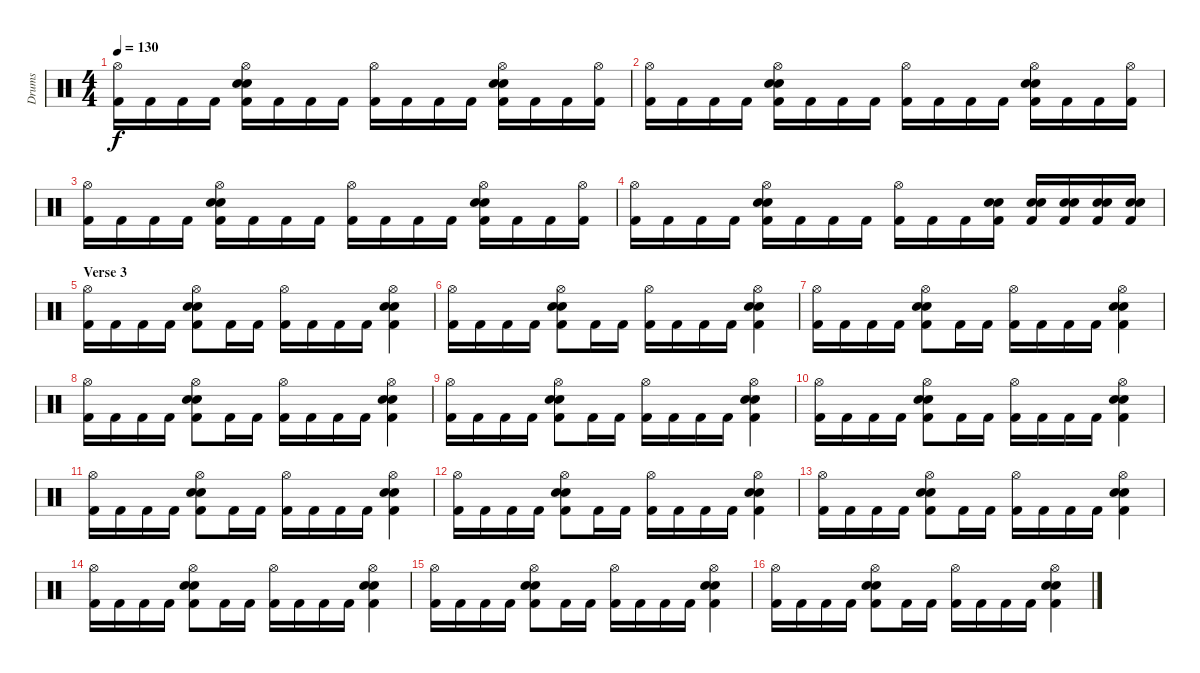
\track ("Drums" "Drums") {instrument percussion}
\staff {score}
\articulation defaults
\ts (4 4)
\tempo 130
\clef neutral
\ks c
("Hi-Hat (open)" "Kick (hit) 2").16{dy f} "Kick (hit) 2".16 "Kick (hit) 2".16 "Kick (hit) 2".16 ("Hi-Hat (open)" "Snare (hit) 2" "Electric Snare (hit)" "Kick (hit) 2").16 "Kick (hit) 2".16 "Kick (hit) 2".16 "Kick (hit) 2".16 ("Hi-Hat (open)" "Kick (hit) 2").16 "Kick (hit) 2".16 "Kick (hit) 2".16 "Kick (hit) 2".16 ("Hi-Hat (open)" "Snare (hit) 2" "Electric Snare (hit)" "Kick (hit) 2").16 "Kick (hit) 2".16 "Kick (hit) 2".16 ("Hi-Hat (open)" "Kick (hit) 2").16 |
("Hi-Hat (open)" "Kick (hit) 2").16 "Kick (hit) 2".16 "Kick (hit) 2".16 "Kick (hit) 2".16 ("Hi-Hat (open)" "Snare (hit) 2" "Electric Snare (hit)" "Kick (hit) 2").16 "Kick (hit) 2".16 "Kick (hit) 2".16 "Kick (hit) 2".16 ("Hi-Hat (open)" "Kick (hit) 2").16 "Kick (hit) 2".16 "Kick (hit) 2".16 "Kick (hit) 2".16 ("Hi-Hat (open)" "Snare (hit) 2" "Electric Snare (hit)" "Kick (hit) 2").16 "Kick (hit) 2".16 "Kick (hit) 2".16 ("Hi-Hat (open)" "Kick (hit) 2").16 |
("Hi-Hat (open)" "Kick (hit) 2").16 "Kick (hit) 2".16 "Kick (hit) 2".16 "Kick (hit) 2".16 ("Hi-Hat (open)" "Snare (hit) 2" "Electric Snare (hit)" "Kick (hit) 2").16 "Kick (hit) 2".16 "Kick (hit) 2".16 "Kick (hit) 2".16 ("Hi-Hat (open)" "Kick (hit) 2").16 "Kick (hit) 2".16 "Kick (hit) 2".16 "Kick (hit) 2".16 ("Hi-Hat (open)" "Snare (hit) 2" "Electric Snare (hit)" "Kick (hit) 2").16 "Kick (hit) 2".16 "Kick (hit) 2".16 ("Hi-Hat (open)" "Kick (hit) 2").16 |
("Hi-Hat (open)" "Kick (hit) 2").16 "Kick (hit) 2".16 "Kick (hit) 2".16 "Kick (hit) 2".16 ("Hi-Hat (open)" "Snare (hit) 2" "Electric Snare (hit)" "Kick (hit) 2").16 "Kick (hit) 2".16 "Kick (hit) 2".16 "Kick (hit) 2".16 ("Hi-Hat (open)" "Kick (hit) 2").16 "Kick (hit) 2".16 "Kick (hit) 2".16 ("Snare (hit) 2" "Electric Snare (hit)" "Kick (hit) 2").16 ("Snare (hit) 2" "Electric Snare (hit)" "Kick (hit) 2").16 ("Snare (hit) 2" "Electric Snare (hit)" "Kick (hit) 2").16 ("Snare (hit) 2" "Electric Snare (hit)" "Kick (hit) 2").16 ("Snare (hit) 2" "Electric Snare (hit)" "Kick (hit) 2").16 |
\section ("" "Verse 3")
("Hi-Hat (open)" "Kick (hit) 2").16 "Kick (hit) 2".16 "Kick (hit) 2".16 "Kick (hit) 2".16 ("Hi-Hat (open)" "Snare (hit) 2" "Electric Snare (hit)" "Kick (hit) 2").8 "Kick (hit) 2".16 "Kick (hit) 2".16 ("Hi-Hat (open)" "Kick (hit) 2").16 "Kick (hit) 2".16 "Kick (hit) 2".16 "Kick (hit) 2".16 ("Hi-Hat (open)" "Snare (hit) 2" "Electric Snare (hit)" "Kick (hit) 2").4 |
("Hi-Hat (open)" "Kick (hit) 2").16 "Kick (hit) 2".16 "Kick (hit) 2".16 "Kick (hit) 2".16 ("Hi-Hat (open)" "Snare (hit) 2" "Electric Snare (hit)" "Kick (hit) 2").8 "Kick (hit) 2".16 "Kick (hit) 2".16 ("Hi-Hat (open)" "Kick (hit) 2").16 "Kick (hit) 2".16 "Kick (hit) 2".16 "Kick (hit) 2".16 ("Hi-Hat (open)" "Snare (hit) 2" "Electric Snare (hit)" "Kick (hit) 2").4 |
("Hi-Hat (open)" "Kick (hit) 2").16 "Kick (hit) 2".16 "Kick (hit) 2".16 "Kick (hit) 2".16 ("Hi-Hat (open)" "Snare (hit) 2" "Electric Snare (hit)" "Kick (hit) 2").8 "Kick (hit) 2".16 "Kick (hit) 2".16 ("Hi-Hat (open)" "Kick (hit) 2").16 "Kick (hit) 2".16 "Kick (hit) 2".16 "Kick (hit) 2".16 ("Hi-Hat (open)" "Snare (hit) 2" "Electric Snare (hit)" "Kick (hit) 2").4 |
("Hi-Hat (open)" "Kick (hit) 2").16 "Kick (hit) 2".16 "Kick (hit) 2".16 "Kick (hit) 2".16 ("Hi-Hat (open)" "Snare (hit) 2" "Electric Snare (hit)" "Kick (hit) 2").8 "Kick (hit) 2".16 "Kick (hit) 2".16 ("Hi-Hat (open)" "Kick (hit) 2").16 "Kick (hit) 2".16 "Kick (hit) 2".16 "Kick (hit) 2".16 ("Hi-Hat (open)" "Snare (hit) 2" "Electric Snare (hit)" "Kick (hit) 2").4 |
("Hi-Hat (open)" "Kick (hit) 2").16 "Kick (hit) 2".16 "Kick (hit) 2".16 "Kick (hit) 2".16 ("Hi-Hat (open)" "Snare (hit) 2" "Electric Snare (hit)" "Kick (hit) 2").8 "Kick (hit) 2".16 "Kick (hit) 2".16 ("Hi-Hat (open)" "Kick (hit) 2").16 "Kick (hit) 2".16 "Kick (hit) 2".16 "Kick (hit) 2".16 ("Hi-Hat (open)" "Snare (hit) 2" "Electric Snare (hit)" "Kick (hit) 2").4 |
("Hi-Hat (open)" "Kick (hit) 2").16 "Kick (hit) 2".16 "Kick (hit) 2".16 "Kick (hit) 2".16 ("Hi-Hat (open)" "Snare (hit) 2" "Electric Snare (hit)" "Kick (hit) 2").8 "Kick (hit) 2".16 "Kick (hit) 2".16 ("Hi-Hat (open)" "Kick (hit) 2").16 "Kick (hit) 2".16 "Kick (hit) 2".16 "Kick (hit) 2".16 ("Hi-Hat (open)" "Snare (hit) 2" "Electric Snare (hit)" "Kick (hit) 2").4 |
("Hi-Hat (open)" "Kick (hit) 2").16 "Kick (hit) 2".16 "Kick (hit) 2".16 "Kick (hit) 2".16 ("Hi-Hat (open)" "Snare (hit) 2" "Electric Snare (hit)" "Kick (hit) 2").8 "Kick (hit) 2".16 "Kick (hit) 2".16 ("Hi-Hat (open)" "Kick (hit) 2").16 "Kick (hit) 2".16 "Kick (hit) 2".16 "Kick (hit) 2".16 ("Hi-Hat (open)" "Snare (hit) 2" "Electric Snare (hit)" "Kick (hit) 2").4 |
("Hi-Hat (open)" "Kick (hit) 2").16 "Kick (hit) 2".16 "Kick (hit) 2".16 "Kick (hit) 2".16 ("Hi-Hat (open)" "Snare (hit) 2" "Electric Snare (hit)" "Kick (hit) 2").8 "Kick (hit) 2".16 "Kick (hit) 2".16 ("Hi-Hat (open)" "Kick (hit) 2").16 "Kick (hit) 2".16 "Kick (hit) 2".16 "Kick (hit) 2".16 ("Hi-Hat (open)" "Snare (hit) 2" "Electric Snare (hit)" "Kick (hit) 2").4 |
("Hi-Hat (open)" "Kick (hit) 2").16 "Kick (hit) 2".16 "Kick (hit) 2".16 "Kick (hit) 2".16 ("Hi-Hat (open)" "Snare (hit) 2" "Electric Snare (hit)" "Kick (hit) 2").8 "Kick (hit) 2".16 "Kick (hit) 2".16 ("Hi-Hat (open)" "Kick (hit) 2").16 "Kick (hit) 2".16 "Kick (hit) 2".16 "Kick (hit) 2".16 ("Hi-Hat (open)" "Snare (hit) 2" "Electric Snare (hit)" "Kick (hit) 2").4 |
("Hi-Hat (open)" "Kick (hit) 2").16 "Kick (hit) 2".16 "Kick (hit) 2".16 "Kick (hit) 2".16 ("Hi-Hat (open)" "Snare (hit) 2" "Electric Snare (hit)" "Kick (hit) 2").8 "Kick (hit) 2".16 "Kick (hit) 2".16 ("Hi-Hat (open)" "Kick (hit) 2").16 "Kick (hit) 2".16 "Kick (hit) 2".16 "Kick (hit) 2".16 ("Hi-Hat (open)" "Snare (hit) 2" "Electric Snare (hit)" "Kick (hit) 2").4 |
("Hi-Hat (open)" "Kick (hit) 2").16 "Kick (hit) 2".16 "Kick (hit) 2".16 "Kick (hit) 2".16 ("Hi-Hat (open)" "Snare (hit) 2" "Electric Snare (hit)" "Kick (hit) 2").8 "Kick (hit) 2".16 "Kick (hit) 2".16 ("Hi-Hat (open)" "Kick (hit) 2").16 "Kick (hit) 2".16 "Kick (hit) 2".16 "Kick (hit) 2".16 ("Hi-Hat (open)" "Snare (hit) 2" "Electric Snare (hit)" "Kick (hit) 2").4 |
("Hi-Hat (open)" "Kick (hit) 2").16 "Kick (hit) 2".16 "Kick (hit) 2".16 "Kick (hit) 2".16 ("Hi-Hat (open)" "Snare (hit) 2" "Electric Snare (hit)" "Kick (hit) 2").8 "Kick (hit) 2".16 "Kick (hit) 2".16 ("Hi-Hat (open)" "Kick (hit) 2").16 "Kick (hit) 2".16 "Kick (hit) 2".16 "Kick (hit) 2".16 ("Hi-Hat (open)" "Snare (hit) 2" "Electric Snare (hit)" "Kick (hit) 2").4
